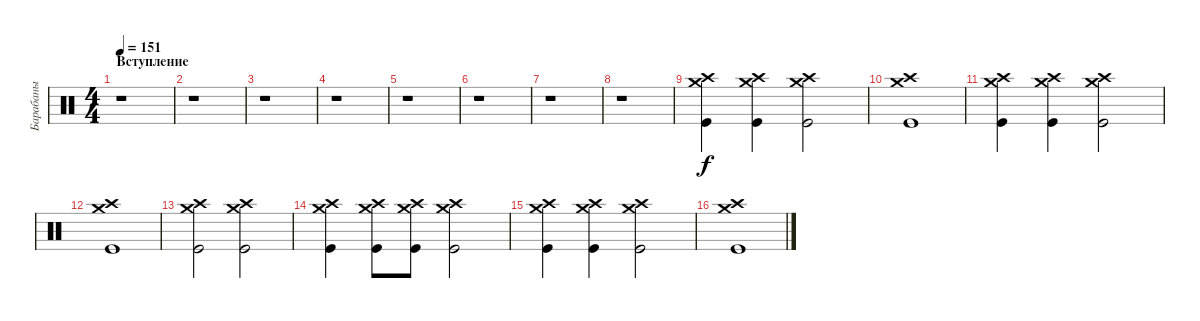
\track ("Барабаны" "Барабаны") {instrument percussion}
\staff {score}
\articulation defaults
\ts (4 4)
\section ("" "Вступление")
\tempo 151
\clef neutral
\ks c
r.1{dy f} |
r.1 |
r.1 |
r.1 |
r.1 |
r.1 |
r.1 |
r.1 |
("Kick (hit)" "Crash high (hit)" "Crash medium (hit)").4 ("Kick (hit)" "Crash high (hit)" "Crash medium (hit)").4 ("Kick (hit)" "Crash high (hit)" "Crash medium (hit)").2 |
("Kick (hit)" "Crash high (hit)" "Crash medium (hit)").1 |
("Kick (hit)" "Crash high (hit)" "Crash medium (hit)").4 ("Kick (hit)" "Crash high (hit)" "Crash medium (hit)").4 ("Kick (hit)" "Crash high (hit)" "Crash medium (hit)").2 |
("Kick (hit)" "Crash high (hit)" "Crash medium (hit)").1 |
("Kick (hit)" "Crash high (hit)" "Crash medium (hit)").2 ("Kick (hit)" "Crash high (hit)" "Crash medium (hit)").2 |
("Kick (hit)" "Crash high (hit)" "Crash medium (hit)").4 ("Kick (hit)" "Crash high (hit)" "Crash medium (hit)").8 ("Kick (hit)" "Crash high (hit)" "Crash medium (hit)").8 ("Kick (hit)" "Crash high (hit)" "Crash medium (hit)").2 |
("Kick (hit)" "Crash high (hit)" "Crash medium (hit)").4 ("Kick (hit)" "Crash high (hit)" "Crash medium (hit)").4 ("Kick (hit)" "Crash high (hit)" "Crash medium (hit)").2 |
("Kick (hit)" "Crash high (hit)" "Crash medium (hit)").1
